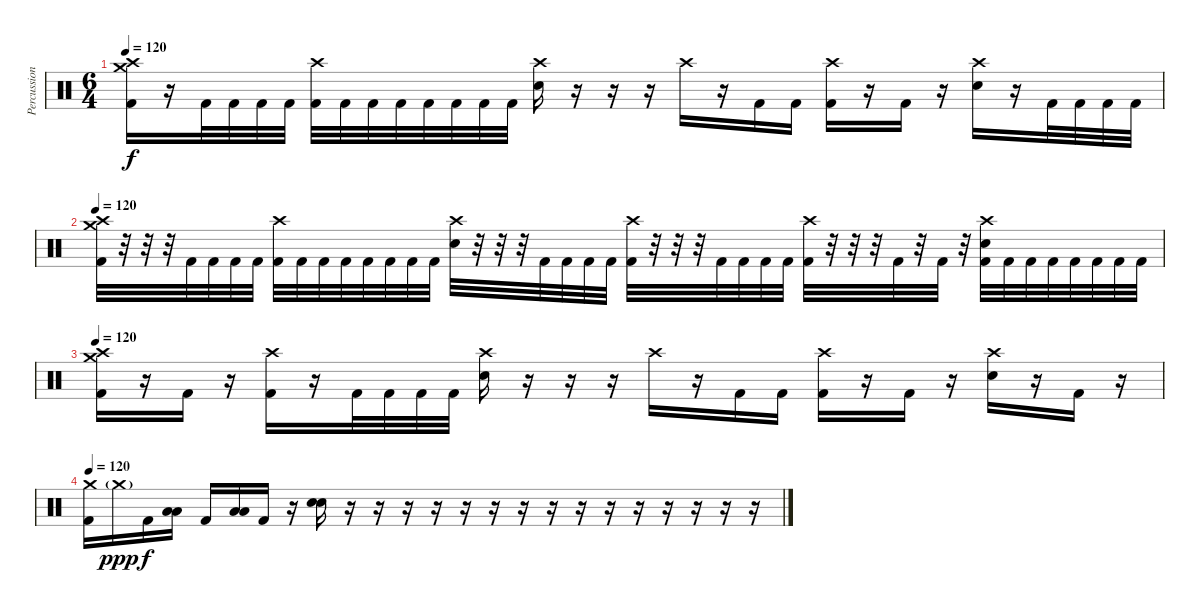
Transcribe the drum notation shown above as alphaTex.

\track ("Percussion" "Percussion") {instrument percussion}
\staff {score}
\articulation defaults
\ts (6 4)
\tempo 120
\clef neutral
\ks c
("Crash medium (hit)" "Crash high (hit)" "Kick (hit) 2").16{dy f} r.16 "Kick (hit) 2".32 "Kick (hit) 2".32 "Kick (hit) 2".32 "Kick (hit) 2".32 ("Crash high (hit)" "Kick (hit) 2").32 "Kick (hit) 2".32 "Kick (hit) 2".32 "Kick (hit) 2".32 "Kick (hit) 2".32 "Kick (hit) 2".32 "Kick (hit) 2".32 "Kick (hit) 2".32 ("Crash high (hit)" "Electric Snare (hit)").16 r.16 r.16 r.16 "Crash high (hit)".16 r.16 "Kick (hit) 2".16 "Kick (hit) 2".16 ("Crash high (hit)" "Kick (hit) 2").16 r.16 "Kick (hit) 2".16 r.16 ("Crash high (hit)" "Electric Snare (hit)").16 r.16 "Kick (hit) 2".32 "Kick (hit) 2".32 "Kick (hit) 2".32 "Kick (hit) 2".32 |
\tempo 120
("Crash medium (hit)" "Crash high (hit)" "Kick (hit) 2").32 r.32 r.32 r.32 "Kick (hit) 2".32 "Kick (hit) 2".32 "Kick (hit) 2".32 "Kick (hit) 2".32 ("Crash high (hit)" "Kick (hit) 2").32 "Kick (hit) 2".32 "Kick (hit) 2".32 "Kick (hit) 2".32 "Kick (hit) 2".32 "Kick (hit) 2".32 "Kick (hit) 2".32 "Kick (hit) 2".32 ("Crash high (hit)" "Electric Snare (hit)").32 r.32 r.32 r.32 "Kick (hit) 2".32 "Kick (hit) 2".32 "Kick (hit) 2".32 "Kick (hit) 2".32 ("Crash high (hit)" "Kick (hit) 2").32 r.32 r.32 r.32 "Kick (hit) 2".32 "Kick (hit) 2".32 "Kick (hit) 2".32 "Kick (hit) 2".32 ("Crash high (hit)" "Kick (hit) 2").32 r.32 r.32 r.32 "Kick (hit) 2".32 r.32 "Kick (hit) 2".32 r.32 ("Crash high (hit)" "Electric Snare (hit)" "Kick (hit) 2").32 "Kick (hit) 2".32 "Kick (hit) 2".32 "Kick (hit) 2".32 "Kick (hit) 2".32 "Kick (hit) 2".32 "Kick (hit) 2".32 "Kick (hit) 2".32 |
\tempo 120
("Crash medium (hit)" "Crash high (hit)" "Kick (hit) 2").16 r.16 "Kick (hit) 2".16 r.16 ("Crash high (hit)" "Kick (hit) 2").16 r.16 "Kick (hit) 2".32 "Kick (hit) 2".32 "Kick (hit) 2".32 "Kick (hit) 2".32 ("Crash high (hit)" "Electric Snare (hit)").16 r.16 r.16 r.16 "Crash high (hit)".16 r.16 "Kick (hit) 2".16 "Kick (hit) 2".16 ("Crash high (hit)" "Kick (hit) 2").16 r.16 "Kick (hit) 2".16 r.16 ("Crash high (hit)" "Electric Snare (hit)").16 r.16 "Kick (hit) 2".16 r.16 |
\tempo 120
("Crash medium (hit)" "Kick (hit) 2").16 "Crash medium (hit)"{g}.16{dy ppp} "Kick (hit) 2".16{dy f} ("Low Tom (hit)" "Low Tom (hit)").16 "Kick (hit) 2".16 ("Low Tom (hit)" "Low Tom (hit)").16 "Kick (hit) 2".16 r.16 ("Electric Snare (hit)" "Electric Snare (hit)").16{bu 60} r.16 r.16 r.16 r.16 r.16 r.16 r.16 r.16 r.16 r.16 r.16 r.16 r.16 r.16 r.16
